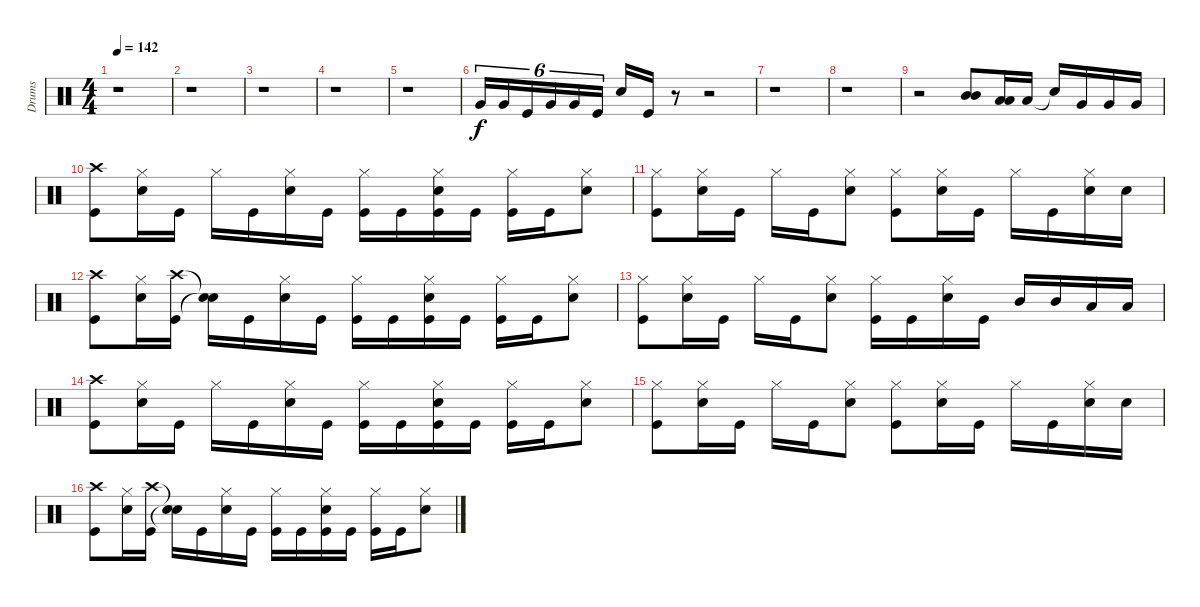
\track ("Drums" "Drums") {instrument percussion}
\staff {score}
\articulation defaults
\ts (4 4)
\tempo 142
\clef neutral
\ks c
r.1{dy f} |
r.1 |
r.1 |
r.1 |
r.1 |
"Very Low Tom (hit)".16{tu (6 4)} "Very Low Tom (hit)".16{tu (6 4)} "Kick (hit)".16{tu (6 4)} "Very Low Tom (hit)".16{tu (6 4)} "Very Low Tom (hit)".16{tu (6 4)} "Kick (hit)".16{tu (6 4)} "Snare (hit) 2".16 "Kick (hit)".16 r.8 r.2 |
r.1 |
r.1 |
r.2 ("Mid Tom (hit)" "Mid Tom (hit)").8 ("Low Tom (hit)" "Low Tom (hit)").16 "Low Tom (hit)".16 "Snare (hit)"{t}.16 "Very Low Tom (hit)".16 "Very Low Tom (hit)".16 "Very Low Tom (hit)".16 |
("Crash high (hit)" "Kick (hit)").8 ("Snare (hit) 2" "Hi-Hat (closed)").16 "Kick (hit)".16 "Hi-Hat (closed)".16 "Kick (hit)".16 ("Snare (hit) 2" "Hi-Hat (closed)").16 "Kick (hit)".16 ("Hi-Hat (closed)" "Kick (hit)").16 "Kick (hit)".16 ("Snare (hit) 2" "Hi-Hat (closed)" "Kick (hit)").16 "Kick (hit)".16 ("Hi-Hat (closed)" "Kick (hit)").16 "Kick (hit)".16 ("Snare (hit) 2" "Hi-Hat (closed)").8 |
("Hi-Hat (closed)" "Kick (hit)").8 ("Snare (hit) 2" "Hi-Hat (closed)").16 "Kick (hit)".16 "Hi-Hat (closed)".16 "Kick (hit)".16 ("Snare (hit) 2" "Hi-Hat (closed)").8 ("Hi-Hat (closed)" "Kick (hit)").8 ("Snare (hit) 2" "Hi-Hat (closed)").16 "Kick (hit)".16 "Hi-Hat (closed)".16 "Kick (hit)".16 ("Hi-Hat (closed)" "Snare (hit) 2").16 "Snare (hit) 2".16 |
("Crash high (hit)" "Kick (hit)").8 ("Hi-Hat (closed)" "Snare (hit) 2").16 ("Crash high (hit)" "Kick (hit)").16 ("Snare (hit)"{t} "Snare (hit)"{t}).16 "Kick (hit)".16 ("Hi-Hat (closed)" "Snare (hit) 2").16 "Kick (hit)".16 ("Hi-Hat (closed)" "Kick (hit)").16 "Kick (hit)".16 ("Snare (hit) 2" "Hi-Hat (closed)" "Kick (hit)").16 "Kick (hit)".16 ("Hi-Hat (closed)" "Kick (hit)").16 "Kick (hit)".16 ("Snare (hit) 2" "Hi-Hat (closed)").8 |
("Hi-Hat (closed)" "Kick (hit)").8 ("Snare (hit) 2" "Hi-Hat (closed)").16 "Kick (hit)".16 "Hi-Hat (closed)".16 "Kick (hit)".16 ("Snare (hit) 2" "Hi-Hat (closed)").8 ("Kick (hit)" "Hi-Hat (closed)").16 "Kick (hit)".16 ("Hi-Hat (closed)" "Snare (hit) 2").16 "Kick (hit)".16 "Mid Tom (hit)".16 "Mid Tom (hit)".16 "Low Tom (hit)".16 "Low Tom (hit)".16 |
("Crash high (hit)" "Kick (hit)").8 ("Snare (hit) 2" "Hi-Hat (closed)").16 "Kick (hit)".16 "Hi-Hat (closed)".16 "Kick (hit)".16 ("Snare (hit) 2" "Hi-Hat (closed)").16 "Kick (hit)".16 ("Hi-Hat (closed)" "Kick (hit)").16 "Kick (hit)".16 ("Snare (hit) 2" "Hi-Hat (closed)" "Kick (hit)").16 "Kick (hit)".16 ("Hi-Hat (closed)" "Kick (hit)").16 "Kick (hit)".16 ("Snare (hit) 2" "Hi-Hat (closed)").8 |
("Hi-Hat (closed)" "Kick (hit)").8 ("Snare (hit) 2" "Hi-Hat (closed)").16 "Kick (hit)".16 "Hi-Hat (closed)".16 "Kick (hit)".16 ("Snare (hit) 2" "Hi-Hat (closed)").8 ("Hi-Hat (closed)" "Kick (hit)").8 ("Snare (hit) 2" "Hi-Hat (closed)").16 "Kick (hit)".16 "Hi-Hat (closed)".16 "Kick (hit)".16 ("Hi-Hat (closed)" "Snare (hit) 2").16 "Snare (hit) 2".16 |
("Crash high (hit)" "Kick (hit)").8 ("Hi-Hat (closed)" "Snare (hit) 2").16 ("Crash high (hit)" "Kick (hit)").16 ("Snare (hit)"{t} "Snare (hit)"{t}).16 "Kick (hit)".16 ("Hi-Hat (closed)" "Snare (hit) 2").16 "Kick (hit)".16 ("Hi-Hat (closed)" "Kick (hit)").16 "Kick (hit)".16 ("Snare (hit) 2" "Hi-Hat (closed)" "Kick (hit)").16 "Kick (hit)".16 ("Hi-Hat (closed)" "Kick (hit)").16 "Kick (hit)".16 ("Snare (hit) 2" "Hi-Hat (closed)").8
